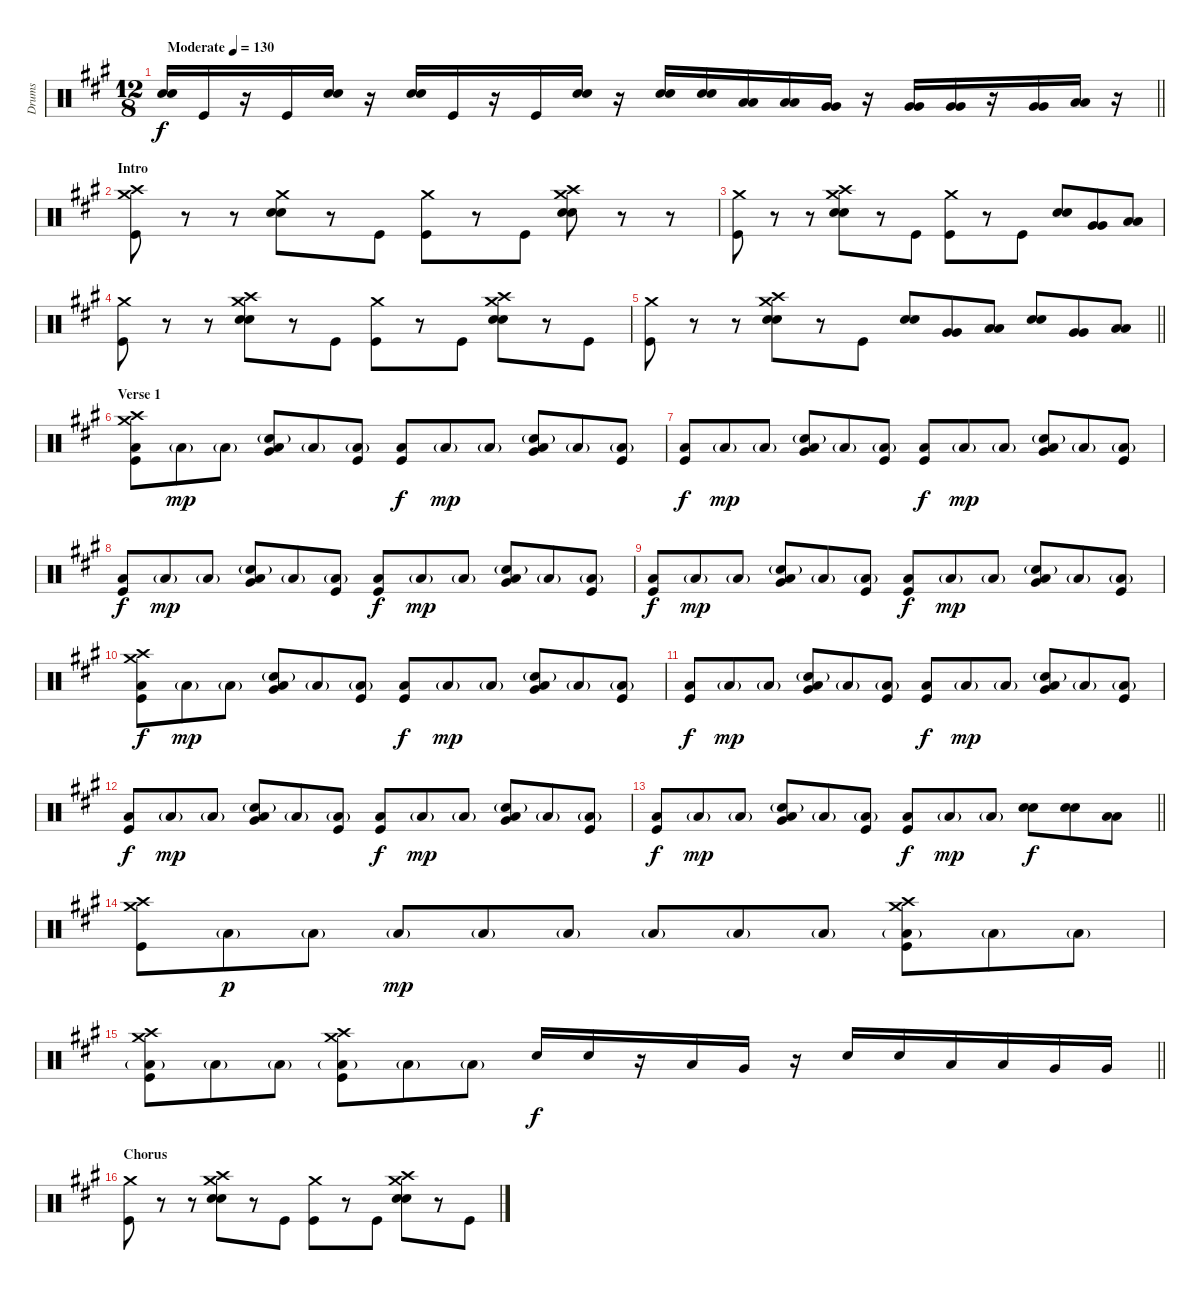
\track ("Drums" "Drums") {instrument percussion}
\staff {score}
\articulation defaults
\ts (12 8)
\tempo (130 "Moderate")
\clef neutral
\barLineRight lightlight
\ks a
("Snare (hit) 2" "Snare (hit) 2").16{dy f} "Kick (hit)".16 r.16 "Kick (hit)".16 ("Snare (hit) 2" "Snare (hit) 2").16 r.16 ("Snare (hit) 2" "Snare (hit) 2").16 "Kick (hit)".16 r.16 "Kick (hit)".16 ("Snare (hit) 2" "Snare (hit) 2").16 r.16 ("Snare (hit) 2" "Snare (hit) 2").16 ("Snare (hit) 2" "Snare (hit) 2").16 ("Low Tom (hit)" "Low Tom (hit)").16 ("Low Tom (hit)" "Low Tom (hit)").16 ("Very Low Tom (hit)" "Very Low Tom (hit)").16 r.16 ("Very Low Tom (hit)" "Very Low Tom (hit)").16 ("Very Low Tom (hit)" "Very Low Tom (hit)").16 r.16 ("Very Low Tom (hit)" "Very Low Tom (hit)").16 ("Low Floor Tom (hit)" "Low Floor Tom (hit)").16 r.16 |
\section ("" "Intro")
("Crash high (hit)" "Crash medium (hit)" "Kick (hit)").8 r.8 r.8 ("Crash medium (hit)" "Snare (hit) 2" "Snare (hit) 2").8 r.8 "Kick (hit)".8 ("Crash medium (hit)" "Kick (hit)").8 r.8 "Kick (hit)".8 ("Crash high (hit)" "Crash medium (hit)" "Snare (hit) 2" "Snare (hit) 2").8 r.8 r.8 |
("Crash medium (hit)" "Kick (hit)").8 r.8 r.8 ("Crash high (hit)" "Crash medium (hit)" "Snare (hit) 2" "Snare (hit) 2").8 r.8 "Kick (hit)".8 ("Crash medium (hit)" "Kick (hit)").8 r.8 "Kick (hit)".8 ("Snare (hit) 2" "Snare (hit) 2").8 ("Very Low Tom (hit)" "Very Low Tom (hit)").8 ("Low Floor Tom (hit)" "Low Floor Tom (hit)").8 |
("Crash medium (hit)" "Kick (hit)").8 r.8 r.8 ("Crash high (hit)" "Crash medium (hit)" "Snare (hit) 2" "Snare (hit) 2").8 r.8 "Kick (hit)".8 ("Crash medium (hit)" "Kick (hit)").8 r.8 "Kick (hit)".8 ("Crash high (hit)" "Crash medium (hit)" "Snare (hit) 2" "Snare (hit) 2").8 r.8 "Kick (hit)".8 |
\barLineRight lightlight
("Crash medium (hit)" "Kick (hit)").8 r.8 r.8 ("Crash high (hit)" "Crash medium (hit)" "Snare (hit) 2" "Snare (hit) 2").8 r.8 "Kick (hit)".8 ("Snare (hit) 2" "Snare (hit) 2").8 ("Very Low Tom (hit)" "Very Low Tom (hit)").8 ("Low Floor Tom (hit)" "Low Floor Tom (hit)").8 ("Snare (hit) 2" "Snare (hit) 2").8 ("Very Low Tom (hit)" "Very Low Tom (hit)").8 ("Low Floor Tom (hit)" "Low Floor Tom (hit)").8 |
\section ("" "Verse 1")
("Crash medium (hit)" "Crash high (hit)" "Kick (hit)" "Low Floor Tom (hit)").8 "Low Floor Tom (hit)"{g}.8{dy mp} "Low Floor Tom (hit)"{g}.8 ("Very Low Tom (hit)" "Snare (hit) 2"{g} "Low Floor Tom (hit)").8 "Low Floor Tom (hit)"{g}.8 ("Kick (hit)" "Low Floor Tom (hit)"{g}).8 ("Kick (hit)" "Low Floor Tom (hit)").8{dy f} "Low Floor Tom (hit)"{g}.8{dy mp} "Low Floor Tom (hit)"{g}.8 ("Very Low Tom (hit)" "Snare (hit) 2"{g} "Low Floor Tom (hit)").8 "Low Floor Tom (hit)"{g}.8 ("Kick (hit)" "Low Floor Tom (hit)"{g}).8 |
("Kick (hit)" "Low Floor Tom (hit)").8{dy f} "Low Floor Tom (hit)"{g}.8{dy mp} "Low Floor Tom (hit)"{g}.8 ("Very Low Tom (hit)" "Snare (hit) 2"{g} "Low Floor Tom (hit)").8 "Low Floor Tom (hit)"{g}.8 ("Kick (hit)" "Low Floor Tom (hit)"{g}).8 ("Kick (hit)" "Low Floor Tom (hit)").8{dy f} "Low Floor Tom (hit)"{g}.8{dy mp} "Low Floor Tom (hit)"{g}.8 ("Very Low Tom (hit)" "Snare (hit) 2"{g} "Low Floor Tom (hit)").8 "Low Floor Tom (hit)"{g}.8 ("Kick (hit)" "Low Floor Tom (hit)"{g}).8 |
("Kick (hit)" "Low Floor Tom (hit)").8{dy f} "Low Floor Tom (hit)"{g}.8{dy mp} "Low Floor Tom (hit)"{g}.8 ("Very Low Tom (hit)" "Snare (hit) 2"{g} "Low Floor Tom (hit)").8 "Low Floor Tom (hit)"{g}.8 ("Kick (hit)" "Low Floor Tom (hit)"{g}).8 ("Kick (hit)" "Low Floor Tom (hit)").8{dy f} "Low Floor Tom (hit)"{g}.8{dy mp} "Low Floor Tom (hit)"{g}.8 ("Very Low Tom (hit)" "Snare (hit) 2"{g} "Low Floor Tom (hit)").8 "Low Floor Tom (hit)"{g}.8 ("Kick (hit)" "Low Floor Tom (hit)"{g}).8 |
("Kick (hit)" "Low Floor Tom (hit)").8{dy f} "Low Floor Tom (hit)"{g}.8{dy mp} "Low Floor Tom (hit)"{g}.8 ("Very Low Tom (hit)" "Snare (hit) 2"{g} "Low Floor Tom (hit)").8 "Low Floor Tom (hit)"{g}.8 ("Kick (hit)" "Low Floor Tom (hit)"{g}).8 ("Kick (hit)" "Low Floor Tom (hit)").8{dy f} "Low Floor Tom (hit)"{g}.8{dy mp} "Low Floor Tom (hit)"{g}.8 ("Very Low Tom (hit)" "Snare (hit) 2"{g} "Low Floor Tom (hit)").8 "Low Floor Tom (hit)"{g}.8 ("Kick (hit)" "Low Floor Tom (hit)"{g}).8 |
("Crash medium (hit)" "Crash high (hit)" "Kick (hit)" "Low Floor Tom (hit)").8{dy f} "Low Floor Tom (hit)"{g}.8{dy mp} "Low Floor Tom (hit)"{g}.8 ("Very Low Tom (hit)" "Snare (hit) 2"{g} "Low Floor Tom (hit)").8 "Low Floor Tom (hit)"{g}.8 ("Kick (hit)" "Low Floor Tom (hit)"{g}).8 ("Kick (hit)" "Low Floor Tom (hit)").8{dy f} "Low Floor Tom (hit)"{g}.8{dy mp} "Low Floor Tom (hit)"{g}.8 ("Very Low Tom (hit)" "Snare (hit) 2"{g} "Low Floor Tom (hit)").8 "Low Floor Tom (hit)"{g}.8 ("Kick (hit)" "Low Floor Tom (hit)"{g}).8 |
("Kick (hit)" "Low Floor Tom (hit)").8{dy f} "Low Floor Tom (hit)"{g}.8{dy mp} "Low Floor Tom (hit)"{g}.8 ("Very Low Tom (hit)" "Snare (hit) 2"{g} "Low Floor Tom (hit)").8 "Low Floor Tom (hit)"{g}.8 ("Kick (hit)" "Low Floor Tom (hit)"{g}).8 ("Kick (hit)" "Low Floor Tom (hit)").8{dy f} "Low Floor Tom (hit)"{g}.8{dy mp} "Low Floor Tom (hit)"{g}.8 ("Very Low Tom (hit)" "Snare (hit) 2"{g} "Low Floor Tom (hit)").8 "Low Floor Tom (hit)"{g}.8 ("Kick (hit)" "Low Floor Tom (hit)"{g}).8 |
("Kick (hit)" "Low Floor Tom (hit)").8{dy f} "Low Floor Tom (hit)"{g}.8{dy mp} "Low Floor Tom (hit)"{g}.8 ("Very Low Tom (hit)" "Snare (hit) 2"{g} "Low Floor Tom (hit)").8 "Low Floor Tom (hit)"{g}.8 ("Kick (hit)" "Low Floor Tom (hit)"{g}).8 ("Kick (hit)" "Low Floor Tom (hit)").8{dy f} "Low Floor Tom (hit)"{g}.8{dy mp} "Low Floor Tom (hit)"{g}.8 ("Very Low Tom (hit)" "Snare (hit) 2"{g} "Low Floor Tom (hit)").8 "Low Floor Tom (hit)"{g}.8 ("Kick (hit)" "Low Floor Tom (hit)"{g}).8 |
\barLineRight lightlight
("Kick (hit)" "Low Floor Tom (hit)").8{dy f} "Low Floor Tom (hit)"{g}.8{dy mp} "Low Floor Tom (hit)"{g}.8 ("Very Low Tom (hit)" "Snare (hit) 2"{g} "Low Floor Tom (hit)").8 "Low Floor Tom (hit)"{g}.8 ("Kick (hit)" "Low Floor Tom (hit)"{g}).8 ("Kick (hit)" "Low Floor Tom (hit)").8{dy f} "Low Floor Tom (hit)"{g}.8{dy mp} "Low Floor Tom (hit)"{g}.8 ("Snare (hit) 2" "Snare (hit) 2").8{dy f} ("Snare (hit) 2" "Snare (hit) 2").8 ("Low Floor Tom (hit)" "Low Floor Tom (hit)").8 |
("Crash high (hit)" "Crash medium (hit)" "Kick (hit)").8 "Low Floor Tom (hit)"{g}.8{dy p} "Low Floor Tom (hit)"{g}.8 "Low Floor Tom (hit)"{g}.8{dy mp} "Low Floor Tom (hit)"{g}.8 "Low Floor Tom (hit)"{g}.8 "Low Floor Tom (hit)"{g}.8 "Low Floor Tom (hit)"{g}.8 "Low Floor Tom (hit)"{g}.8 ("Crash high (hit)" "Crash medium (hit)" "Kick (hit)" "Low Floor Tom (hit)"{g}).8 "Low Floor Tom (hit)"{g}.8 "Low Floor Tom (hit)"{g}.8 |
\barLineRight lightlight
("Crash high (hit)" "Crash medium (hit)" "Kick (hit)" "Low Floor Tom (hit)"{g}).8 "Low Floor Tom (hit)"{g}.8 "Low Floor Tom (hit)"{g}.8 ("Crash high (hit)" "Crash medium (hit)" "Kick (hit)" "Low Floor Tom (hit)"{g}).8 "Low Floor Tom (hit)"{g}.8 "Low Floor Tom (hit)"{g}.8 "Snare (hit) 2".16{dy f} "Snare (hit) 2".16 r.16 "Low Tom (hit)".16 "Very Low Tom (hit)".16 r.16 "Snare (hit) 2".16 "Snare (hit) 2".16 "Low Tom (hit)".16 "Low Tom (hit)".16 "Very Low Tom (hit)".16 "Very Low Tom (hit)".16 |
\section ("" "Chorus")
("Crash medium (hit)" "Kick (hit)").8 r.8 r.8 ("Crash high (hit)" "Crash medium (hit)" "Snare (hit) 2" "Snare (hit) 2").8 r.8 "Kick (hit)".8 ("Crash medium (hit)" "Kick (hit)").8 r.8 "Kick (hit)".8 ("Crash high (hit)" "Crash medium (hit)" "Snare (hit) 2" "Snare (hit) 2").8 r.8 "Kick (hit)".8
